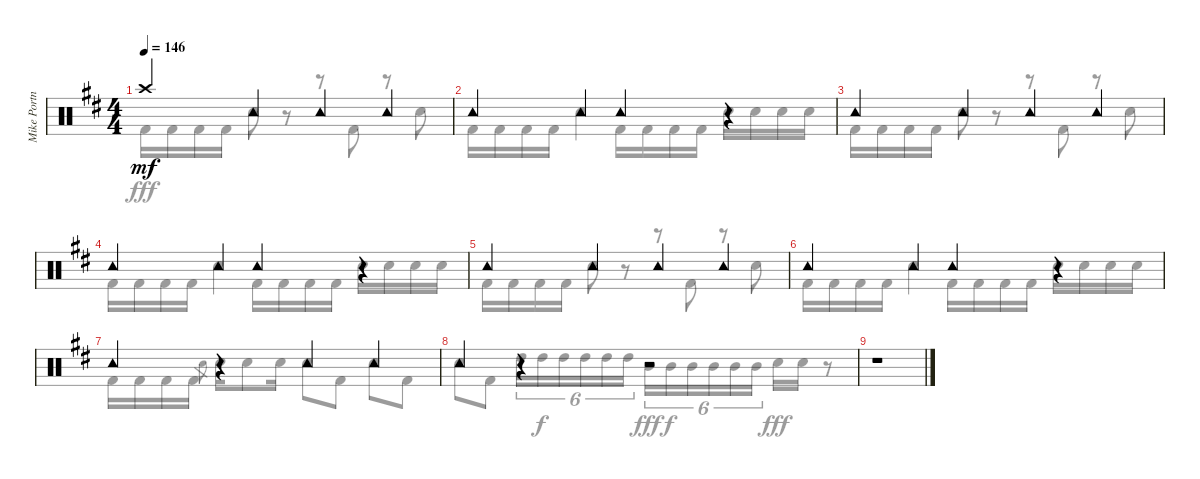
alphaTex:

\track ("Mike Portnoy Drums" "Mike Portn") {instrument percussion}
\staff {score}
\articulation defaults
\voice
\ts (4 4)
\tempo 146
\clef neutral
\ks bminor "Crash high (hit)".4{dy mf} "Tambourine (hit)".4 "Tambourine (hit)".4 "Tambourine (hit)".4
|
"Tambourine (hit)".4 "Tambourine (hit)".4 "Tambourine (hit)".4 r.4 |
"Tambourine (hit)".4 "Tambourine (hit)".4 "Tambourine (hit)".4 "Tambourine (hit)".4 |
"Tambourine (hit)".4 "Tambourine (hit)".4 "Tambourine (hit)".4 r.4 |
"Tambourine (hit)".4 "Tambourine (hit)".4 "Tambourine (hit)".4 "Tambourine (hit)".4 |
"Tambourine (hit)".4 "Tambourine (hit)".4 "Tambourine (hit)".4 r.4 |
"Tambourine (hit)".4 r.4 "Tambourine (hit)".4 "Tambourine (hit)".4 |
"Tambourine (hit)".4 r.4 r.2 |
r.1
\voice
\clef neutral
\ottava regular
\simile none
\ks bminor "Kick (hit) 2".16{dy fff} "Kick (hit) 2".16 "Kick (hit) 2".16 "Kick (hit) 2".16 "Snare (hit) 2".8
r.8 r.8 "Kick (hit) 2".8 r.8 "Snare (hit) 2".8 |
"Kick (hit) 2".16 "Kick (hit) 2".16 "Kick (hit) 2".16 "Kick (hit) 2".16 "Snare (hit) 2".4 "Kick (hit) 2".16 "Kick (hit) 2".16 "Kick (hit) 2".16 "Kick (hit) 2".16 "Snare (hit) 2".16 "Snare (hit) 2".16 "Snare (hit) 2".16 "Snare (hit) 2".16 |
"Kick (hit) 2".16 "Kick (hit) 2".16 "Kick (hit) 2".16 "Kick (hit) 2".16 "Snare (hit) 2".8 r.8 r.8 "Kick (hit) 2".8 r.8 "Snare (hit) 2".8 |
"Kick (hit) 2".16 "Kick (hit) 2".16 "Kick (hit) 2".16 "Kick (hit) 2".16 "Snare (hit) 2".4 "Kick (hit) 2".16 "Kick (hit) 2".16 "Kick (hit) 2".16 "Kick (hit) 2".16 "Snare (hit) 2".16 "Snare (hit) 2".16 "Snare (hit) 2".16 "Snare (hit) 2".16 |
"Kick (hit) 2".16 "Kick (hit) 2".16 "Kick (hit) 2".16 "Kick (hit) 2".16 "Snare (hit) 2".8 r.8 r.8 "Kick (hit) 2".8 r.8 "Snare (hit) 2".8 |
"Kick (hit) 2".16 "Kick (hit) 2".16 "Kick (hit) 2".16 "Kick (hit) 2".16 "Snare (hit) 2".4 "Kick (hit) 2".16 "Kick (hit) 2".16 "Kick (hit) 2".16 "Kick (hit) 2".16 "Snare (hit) 2".16 "Snare (hit) 2".16 "Snare (hit) 2".16 "Snare (hit) 2".16 |
"Kick (hit) 2".16 "Kick (hit) 2".16 "Kick (hit) 2".16 "Kick (hit) 2".16 "Snare (hit) 2".8{gr} "Snare (hit) 2".16 "Snare (hit) 2".8 "Snare (hit) 2".16 "Snare (hit) 2".8 "Kick (hit) 2".8 "Snare (hit) 2".8 "Kick (hit) 2".8 |
"Snare (hit) 2".8 "Kick (hit) 2".8 "High Tom (hit)".16{tu (6 4)} "High Tom (hit)".16{tu (6 4) dy f} "High Tom (hit)".16{tu (6 4)} "High Tom (hit)".16{tu (6 4)} "High Tom (hit)".16{tu (6 4)} "High Tom (hit)".16{tu (6 4)} "Mid Tom (hit)".16{tu (6 4) dy fff} "Mid Tom (hit)".16{tu (6 4) dy f} "Mid Tom (hit)".16{tu (6 4)} "Mid Tom (hit)".16{tu (6 4)} "Mid Tom (hit)".16{tu (6 4)} "Mid Tom (hit)".16{tu (6 4)} "Snare (hit) 2".16{dy fff} "Snare (hit) 2".16 r.8 |
r.1
